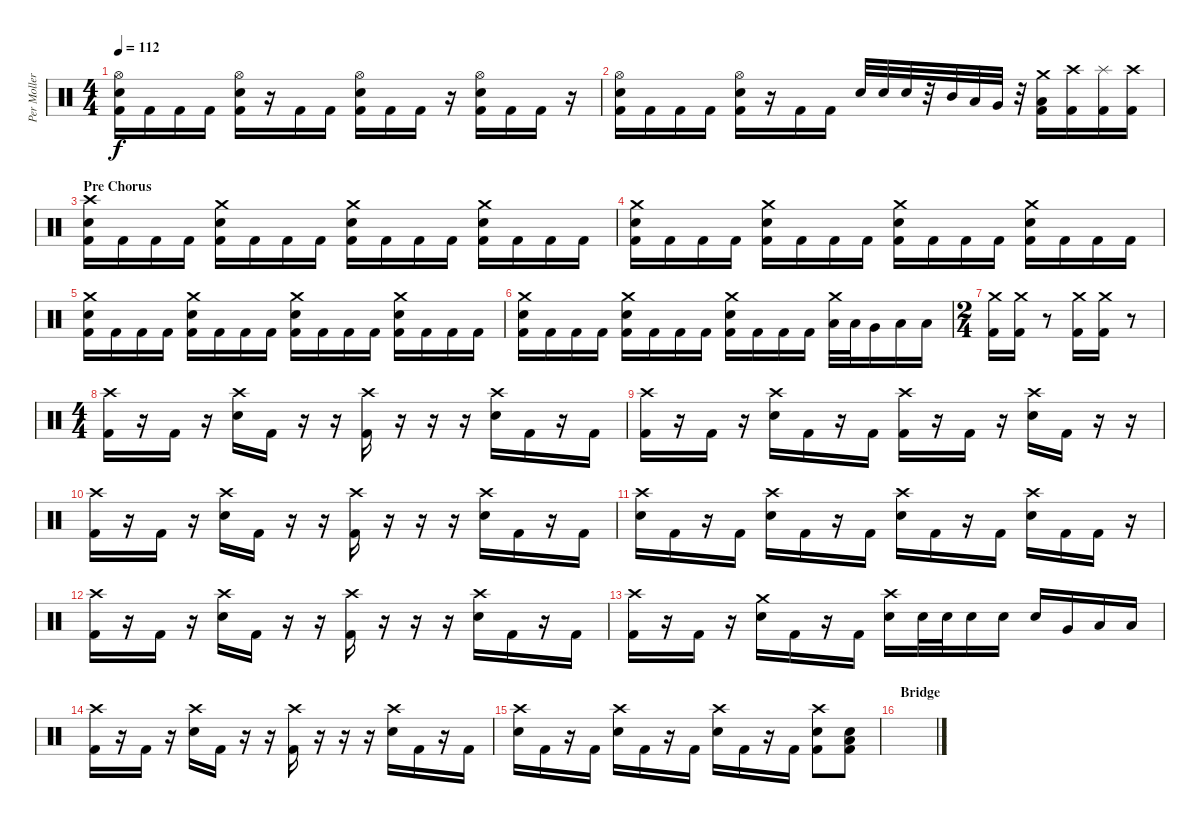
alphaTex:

\track ("Per Moller Jensen" "Per Moller") {instrument percussion}
\staff {score}
\articulation defaults
\ts (4 4)
\tempo 112
\clef neutral
\ks c
("Hi-Hat (open)" "Electric Snare (hit)" "Kick (hit) 2").16{dy f} "Kick (hit) 2".16 "Kick (hit) 2".16 "Kick (hit) 2".16 ("Hi-Hat (open)" "Electric Snare (hit)" "Kick (hit) 2").16 r.16 "Kick (hit) 2".16 "Kick (hit) 2".16 ("Hi-Hat (open)" "Electric Snare (hit)" "Kick (hit) 2").16 "Kick (hit) 2".16 "Kick (hit) 2".16 r.16 ("Hi-Hat (open)" "Electric Snare (hit)" "Kick (hit) 2").16 "Kick (hit) 2".16 "Kick (hit) 2".16 r.16 |
("Hi-Hat (open)" "Electric Snare (hit)" "Kick (hit) 2").16 "Kick (hit) 2".16 "Kick (hit) 2".16 "Kick (hit) 2".16 ("Hi-Hat (open)" "Electric Snare (hit)" "Kick (hit) 2").16 r.16 "Kick (hit) 2".16 "Kick (hit) 2".16 "Electric Snare (hit)".32 "Electric Snare (hit)".32 "Electric Snare (hit)".32 r.32 "Mid Tom (hit)".32 "Low Tom (hit)".32 "Very Low Tom (hit)".32 r.32 ("Crash medium (hit)" "Low Floor Tom (hit)" "Kick (hit) 2").16 ("Crash high (hit)" "Kick (hit) 2").16 ("Splash (hit)" "Kick (hit) 2").16 ("Crash high (hit)" "Kick (hit) 2").16 |
\section ("" "Pre Chorus")
("Crash high (hit)" "Electric Snare (hit)" "Kick (hit) 2").16 "Kick (hit) 2".16 "Kick (hit) 2".16 "Kick (hit) 2".16 ("Crash medium (hit)" "Electric Snare (hit)" "Kick (hit) 2").16 "Kick (hit) 2".16 "Kick (hit) 2".16 "Kick (hit) 2".16 ("Crash medium (hit)" "Electric Snare (hit)" "Kick (hit) 2").16 "Kick (hit) 2".16 "Kick (hit) 2".16 "Kick (hit) 2".16 ("Crash medium (hit)" "Electric Snare (hit)" "Kick (hit) 2").16 "Kick (hit) 2".16 "Kick (hit) 2".16 "Kick (hit) 2".16 |
("Crash medium (hit)" "Electric Snare (hit)" "Kick (hit) 2").16 "Kick (hit) 2".16 "Kick (hit) 2".16 "Kick (hit) 2".16 ("Crash medium (hit)" "Electric Snare (hit)" "Kick (hit) 2").16 "Kick (hit) 2".16 "Kick (hit) 2".16 "Kick (hit) 2".16 ("Crash medium (hit)" "Electric Snare (hit)" "Kick (hit) 2").16 "Kick (hit) 2".16 "Kick (hit) 2".16 "Kick (hit) 2".16 ("Crash medium (hit)" "Electric Snare (hit)" "Kick (hit) 2").16 "Kick (hit) 2".16 "Kick (hit) 2".16 "Kick (hit) 2".16 |
("Crash medium (hit)" "Electric Snare (hit)" "Kick (hit) 2").16 "Kick (hit) 2".16 "Kick (hit) 2".16 "Kick (hit) 2".16 ("Crash medium (hit)" "Electric Snare (hit)" "Kick (hit) 2").16 "Kick (hit) 2".16 "Kick (hit) 2".16 "Kick (hit) 2".16 ("Crash medium (hit)" "Electric Snare (hit)" "Kick (hit) 2").16 "Kick (hit) 2".16 "Kick (hit) 2".16 "Kick (hit) 2".16 ("Crash medium (hit)" "Electric Snare (hit)" "Kick (hit) 2").16 "Kick (hit) 2".16 "Kick (hit) 2".16 "Kick (hit) 2".16 |
("Crash medium (hit)" "Electric Snare (hit)" "Kick (hit) 2").16 "Kick (hit) 2".16 "Kick (hit) 2".16 "Kick (hit) 2".16 ("Crash medium (hit)" "Electric Snare (hit)" "Kick (hit) 2").16 "Kick (hit) 2".16 "Kick (hit) 2".16 "Kick (hit) 2".16 ("Crash medium (hit)" "Electric Snare (hit)" "Kick (hit) 2").16 "Kick (hit) 2".16 "Kick (hit) 2".16 "Kick (hit) 2".16 ("Crash medium (hit)" "Low Tom (hit)").32 "Low Tom (hit)".32 "Very Low Tom (hit)".16 "Low Floor Tom (hit)".16 "Low Floor Tom (hit)".16 |
\ts (2 4)
("Crash medium (hit)" "Kick (hit) 2").16 ("Crash medium (hit)" "Kick (hit) 2").16 r.8 ("Crash medium (hit)" "Kick (hit) 2").16 ("Crash medium (hit)" "Kick (hit) 2").16 r.8 |
\ts (4 4)
("Crash high (hit)" "Kick (hit) 2").16 r.16 "Kick (hit) 2".16 r.16 ("Crash high (hit)" "Electric Snare (hit)").16 "Kick (hit) 2".16 r.16 r.16 ("Crash high (hit)" "Kick (hit) 2").16 r.16 r.16 r.16 ("Crash high (hit)" "Electric Snare (hit)").16 "Kick (hit) 2".16 r.16 "Kick (hit) 2".16 |
("Crash high (hit)" "Kick (hit) 2").16 r.16 "Kick (hit) 2".16 r.16 ("Crash high (hit)" "Electric Snare (hit)").16 "Kick (hit) 2".16 r.16 "Kick (hit) 2".16 ("Crash high (hit)" "Kick (hit) 2").16 r.16 "Kick (hit) 2".16 r.16 ("Crash high (hit)" "Electric Snare (hit)").16 "Kick (hit) 2".16 r.16 r.16 |
("Crash high (hit)" "Kick (hit) 2").16 r.16 "Kick (hit) 2".16 r.16 ("Crash high (hit)" "Electric Snare (hit)").16 "Kick (hit) 2".16 r.16 r.16 ("Crash high (hit)" "Kick (hit) 2").16 r.16 r.16 r.16 ("Crash high (hit)" "Electric Snare (hit)").16 "Kick (hit) 2".16 r.16 "Kick (hit) 2".16 |
("Crash high (hit)" "Electric Snare (hit)").16 "Kick (hit) 2".16 r.16 "Kick (hit) 2".16 ("Crash high (hit)" "Electric Snare (hit)").16 "Kick (hit) 2".16 r.16 "Kick (hit) 2".16 ("Crash high (hit)" "Electric Snare (hit)").16 "Kick (hit) 2".16 r.16 "Kick (hit) 2".16 ("Crash high (hit)" "Electric Snare (hit)").16 "Kick (hit) 2".16 "Kick (hit) 2".16 r.16 |
("Crash high (hit)" "Kick (hit) 2").16 r.16 "Kick (hit) 2".16 r.16 ("Crash high (hit)" "Electric Snare (hit)").16 "Kick (hit) 2".16 r.16 r.16 ("Crash high (hit)" "Kick (hit) 2").16 r.16 r.16 r.16 ("Crash high (hit)" "Electric Snare (hit)").16 "Kick (hit) 2".16 r.16 "Kick (hit) 2".16 |
("Crash high (hit)" "Kick (hit) 2").16 r.16 "Kick (hit) 2".16 r.16 ("Crash medium (hit)" "Electric Snare (hit)").16 "Kick (hit) 2".16 r.16 "Kick (hit) 2".16 ("Crash high (hit)" "Electric Snare (hit)").16 "Electric Snare (hit)".32 "Electric Snare (hit)".32 "Electric Snare (hit)".16 "Electric Snare (hit)".16 "Electric Snare (hit)".16 "Very Low Tom (hit)".16 "Low Tom (hit)".16 "Low Floor Tom (hit)".16 |
("Crash high (hit)" "Kick (hit) 2").16 r.16 "Kick (hit) 2".16 r.16 ("Crash high (hit)" "Electric Snare (hit)").16 "Kick (hit) 2".16 r.16 r.16 ("Crash high (hit)" "Kick (hit) 2").16 r.16 r.16 r.16 ("Crash high (hit)" "Electric Snare (hit)").16 "Kick (hit) 2".16 r.16 "Kick (hit) 2".16 |
("Crash high (hit)" "Electric Snare (hit)").16 "Kick (hit) 2".16 r.16 "Kick (hit) 2".16 ("Crash high (hit)" "Electric Snare (hit)").16 "Kick (hit) 2".16 r.16 "Kick (hit) 2".16 ("Crash high (hit)" "Electric Snare (hit)").16 "Kick (hit) 2".16 r.16 "Kick (hit) 2".16 ("Crash high (hit)" "Electric Snare (hit)" "Kick (hit) 2").8 ("Electric Snare (hit)" "Low Floor Tom (hit)" "Kick (hit) 2").8 |
\section ("" "Bridge")
